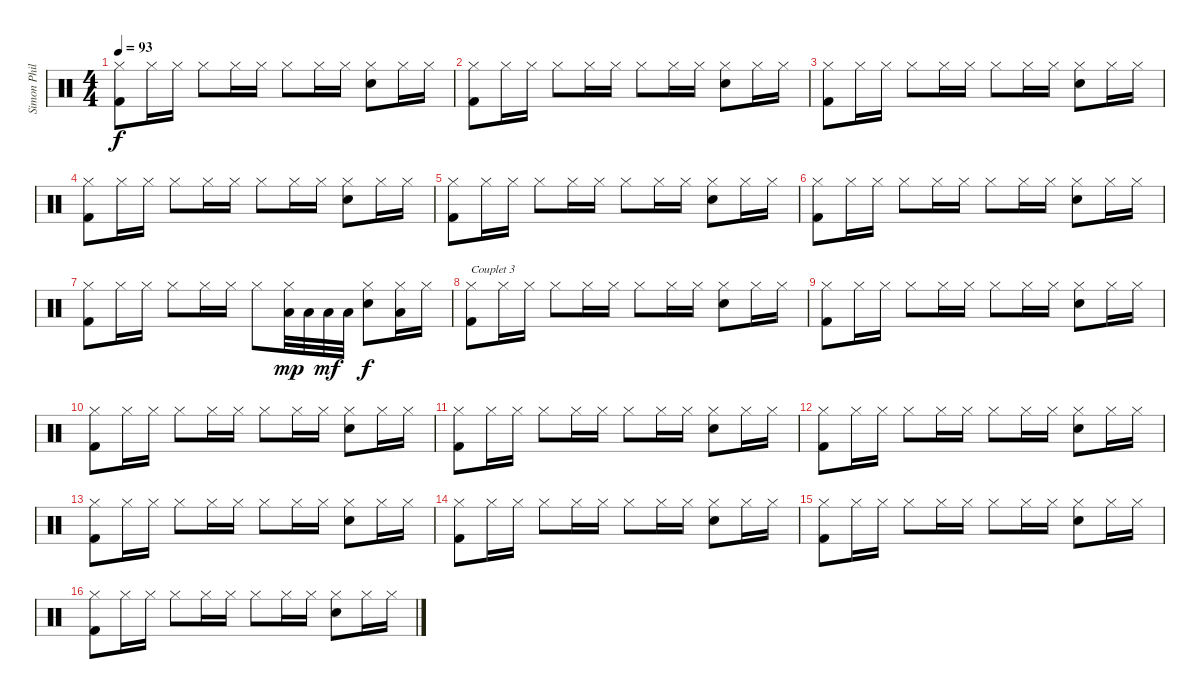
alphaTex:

\track ("Simon Phillips" "Simon Phil") {instrument percussion}
\staff {score}
\articulation defaults
\ts (4 4)
\tempo 93
\clef neutral
\ks c
("Hi-Hat (closed)" "Kick (hit) 2").8{dy f} "Hi-Hat (closed)".16 "Hi-Hat (closed)".16 "Hi-Hat (closed)".8 "Hi-Hat (closed)".16 "Hi-Hat (closed)".16 "Hi-Hat (closed)".8 "Hi-Hat (closed)".16 "Hi-Hat (closed)".16 ("Electric Snare (hit)" "Hi-Hat (closed)").8 "Hi-Hat (closed)".16 "Hi-Hat (closed)".16 |
("Hi-Hat (closed)" "Kick (hit) 2").8 "Hi-Hat (closed)".16 "Hi-Hat (closed)".16 "Hi-Hat (closed)".8 "Hi-Hat (closed)".16 "Hi-Hat (closed)".16 "Hi-Hat (closed)".8 "Hi-Hat (closed)".16 "Hi-Hat (closed)".16 ("Electric Snare (hit)" "Hi-Hat (closed)").8 "Hi-Hat (closed)".16 "Hi-Hat (closed)".16 |
("Hi-Hat (closed)" "Kick (hit) 2").8 "Hi-Hat (closed)".16 "Hi-Hat (closed)".16 "Hi-Hat (closed)".8 "Hi-Hat (closed)".16 "Hi-Hat (closed)".16 "Hi-Hat (closed)".8 "Hi-Hat (closed)".16 "Hi-Hat (closed)".16 ("Electric Snare (hit)" "Hi-Hat (closed)").8 "Hi-Hat (closed)".16 "Hi-Hat (closed)".16 |
("Hi-Hat (closed)" "Kick (hit) 2").8 "Hi-Hat (closed)".16 "Hi-Hat (closed)".16 "Hi-Hat (closed)".8 "Hi-Hat (closed)".16 "Hi-Hat (closed)".16 "Hi-Hat (closed)".8 "Hi-Hat (closed)".16 "Hi-Hat (closed)".16 ("Electric Snare (hit)" "Hi-Hat (closed)").8 "Hi-Hat (closed)".16 "Hi-Hat (closed)".16 |
("Hi-Hat (closed)" "Kick (hit) 2").8 "Hi-Hat (closed)".16 "Hi-Hat (closed)".16 "Hi-Hat (closed)".8 "Hi-Hat (closed)".16 "Hi-Hat (closed)".16 "Hi-Hat (closed)".8 "Hi-Hat (closed)".16 "Hi-Hat (closed)".16 ("Electric Snare (hit)" "Hi-Hat (closed)").8 "Hi-Hat (closed)".16 "Hi-Hat (closed)".16 |
("Hi-Hat (closed)" "Kick (hit) 2").8 "Hi-Hat (closed)".16 "Hi-Hat (closed)".16 "Hi-Hat (closed)".8 "Hi-Hat (closed)".16 "Hi-Hat (closed)".16 "Hi-Hat (closed)".8 "Hi-Hat (closed)".16 "Hi-Hat (closed)".16 ("Electric Snare (hit)" "Hi-Hat (closed)").8 "Hi-Hat (closed)".16 "Hi-Hat (closed)".16 |
("Hi-Hat (closed)" "Kick (hit) 2").8 "Hi-Hat (closed)".16 "Hi-Hat (closed)".16 "Hi-Hat (closed)".8 "Hi-Hat (closed)".16 "Hi-Hat (closed)".16 "Hi-Hat (closed)".8 ("Low Tom (hit)" "Hi-Hat (closed)").32{dy mp} "Low Tom (hit)".32 "Low Tom (hit)".32{dy mf} "Low Tom (hit)".32 ("Electric Snare (hit)" "Hi-Hat (closed)").8{dy f} ("Low Tom (hit)" "Hi-Hat (closed)").16 "Hi-Hat (closed)".16 |
("Hi-Hat (closed)" "Kick (hit) 2").8{txt "Couplet 3"} "Hi-Hat (closed)".16 "Hi-Hat (closed)".16 "Hi-Hat (closed)".8 "Hi-Hat (closed)".16 "Hi-Hat (closed)".16 "Hi-Hat (closed)".8 "Hi-Hat (closed)".16 "Hi-Hat (closed)".16 ("Electric Snare (hit)" "Hi-Hat (closed)").8 "Hi-Hat (closed)".16 "Hi-Hat (closed)".16 |
("Hi-Hat (closed)" "Kick (hit) 2").8 "Hi-Hat (closed)".16 "Hi-Hat (closed)".16 "Hi-Hat (closed)".8 "Hi-Hat (closed)".16 "Hi-Hat (closed)".16 "Hi-Hat (closed)".8 "Hi-Hat (closed)".16 "Hi-Hat (closed)".16 ("Electric Snare (hit)" "Hi-Hat (closed)").8 "Hi-Hat (closed)".16 "Hi-Hat (closed)".16 |
("Hi-Hat (closed)" "Kick (hit) 2").8 "Hi-Hat (closed)".16 "Hi-Hat (closed)".16 "Hi-Hat (closed)".8 "Hi-Hat (closed)".16 "Hi-Hat (closed)".16 "Hi-Hat (closed)".8 "Hi-Hat (closed)".16 "Hi-Hat (closed)".16 ("Electric Snare (hit)" "Hi-Hat (closed)").8 "Hi-Hat (closed)".16 "Hi-Hat (closed)".16 |
("Hi-Hat (closed)" "Kick (hit) 2").8 "Hi-Hat (closed)".16 "Hi-Hat (closed)".16 "Hi-Hat (closed)".8 "Hi-Hat (closed)".16 "Hi-Hat (closed)".16 "Hi-Hat (closed)".8 "Hi-Hat (closed)".16 "Hi-Hat (closed)".16 ("Electric Snare (hit)" "Hi-Hat (closed)").8 "Hi-Hat (closed)".16 "Hi-Hat (closed)".16 |
("Hi-Hat (closed)" "Kick (hit) 2").8 "Hi-Hat (closed)".16 "Hi-Hat (closed)".16 "Hi-Hat (closed)".8 "Hi-Hat (closed)".16 "Hi-Hat (closed)".16 "Hi-Hat (closed)".8 "Hi-Hat (closed)".16 "Hi-Hat (closed)".16 ("Electric Snare (hit)" "Hi-Hat (closed)").8 "Hi-Hat (closed)".16 "Hi-Hat (closed)".16 |
("Hi-Hat (closed)" "Kick (hit) 2").8 "Hi-Hat (closed)".16 "Hi-Hat (closed)".16 "Hi-Hat (closed)".8 "Hi-Hat (closed)".16 "Hi-Hat (closed)".16 "Hi-Hat (closed)".8 "Hi-Hat (closed)".16 "Hi-Hat (closed)".16 ("Electric Snare (hit)" "Hi-Hat (closed)").8 "Hi-Hat (closed)".16 "Hi-Hat (closed)".16 |
("Hi-Hat (closed)" "Kick (hit) 2").8 "Hi-Hat (closed)".16 "Hi-Hat (closed)".16 "Hi-Hat (closed)".8 "Hi-Hat (closed)".16 "Hi-Hat (closed)".16 "Hi-Hat (closed)".8 "Hi-Hat (closed)".16 "Hi-Hat (closed)".16 ("Electric Snare (hit)" "Hi-Hat (closed)").8 "Hi-Hat (closed)".16 "Hi-Hat (closed)".16 |
("Hi-Hat (closed)" "Kick (hit) 2").8 "Hi-Hat (closed)".16 "Hi-Hat (closed)".16 "Hi-Hat (closed)".8 "Hi-Hat (closed)".16 "Hi-Hat (closed)".16 "Hi-Hat (closed)".8 "Hi-Hat (closed)".16 "Hi-Hat (closed)".16 ("Electric Snare (hit)" "Hi-Hat (closed)").8 "Hi-Hat (closed)".16 "Hi-Hat (closed)".16 |
("Hi-Hat (closed)" "Kick (hit) 2").8 "Hi-Hat (closed)".16 "Hi-Hat (closed)".16 "Hi-Hat (closed)".8 "Hi-Hat (closed)".16 "Hi-Hat (closed)".16 "Hi-Hat (closed)".8 "Hi-Hat (closed)".16 "Hi-Hat (closed)".16 ("Electric Snare (hit)" "Hi-Hat (closed)").8 "Hi-Hat (closed)".16 "Hi-Hat (closed)".16
